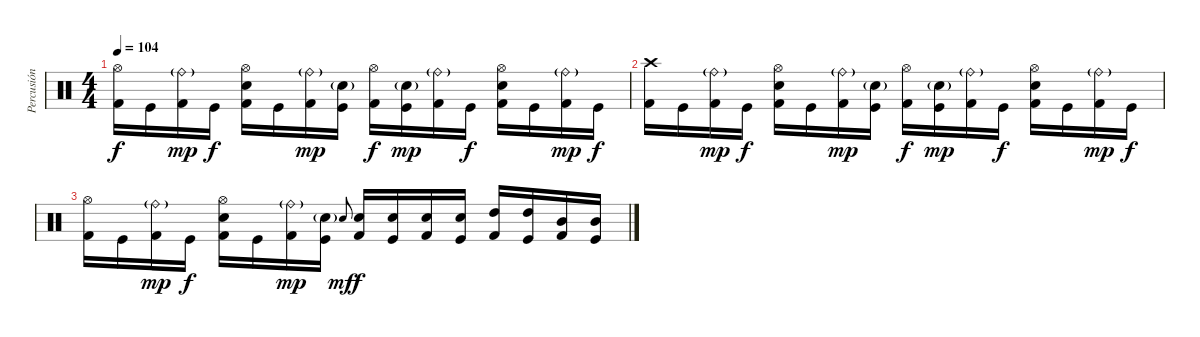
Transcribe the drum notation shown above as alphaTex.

\track ("Percusión" "Percusión") {instrument percussion}
\staff {score}
\articulation defaults
\ts (4 4)
\tempo 104
\clef neutral
\ks c
("Hi-Hat (open)" "Kick (hit) 2").16{dy f} "Kick (hit)".16 ("Ride (bell)"{g} "Kick (hit) 2").16{dy mp} "Kick (hit)".16{dy f} ("Hi-Hat (open)" "Snare (hit) 2" "Kick (hit) 2").16 "Kick (hit)".16 ("Ride (bell)"{g} "Kick (hit) 2").16{dy mp} ("Snare (hit) 2"{g} "Kick (hit)").16 ("Hi-Hat (open)" "Kick (hit) 2").16{dy f} ("Snare (hit) 2"{g} "Kick (hit)").16{dy mp} ("Ride (bell)"{g} "Kick (hit) 2").16 "Kick (hit)".16{dy f} ("Hi-Hat (open)" "Snare (hit) 2" "Kick (hit) 2").16 "Kick (hit)".16 ("Ride (bell)"{g} "Kick (hit) 2").16{dy mp} "Kick (hit)".16{dy f} |
("Crash high (hit)" "Kick (hit) 2").16 "Kick (hit)".16 ("Ride (bell)"{g} "Kick (hit) 2").16{dy mp} "Kick (hit)".16{dy f} ("Hi-Hat (open)" "Snare (hit) 2" "Kick (hit) 2").16 "Kick (hit)".16 ("Ride (bell)"{g} "Kick (hit) 2").16{dy mp} ("Snare (hit) 2"{g} "Kick (hit)").16 ("Hi-Hat (open)" "Kick (hit) 2").16{dy f} ("Snare (hit) 2"{g} "Kick (hit)").16{dy mp} ("Ride (bell)"{g} "Kick (hit) 2").16 "Kick (hit)".16{dy f} ("Hi-Hat (open)" "Snare (hit) 2" "Kick (hit) 2").16 "Kick (hit)".16 ("Ride (bell)"{g} "Kick (hit) 2").16{dy mp} "Kick (hit)".16{dy f} |
("Hi-Hat (open)" "Kick (hit) 2").16 "Kick (hit)".16 ("Ride (bell)"{g} "Kick (hit) 2").16{dy mp} "Kick (hit)".16{dy f} ("Hi-Hat (open)" "Snare (hit) 2" "Kick (hit) 2").16 "Kick (hit)".16 ("Ride (bell)"{g} "Kick (hit) 2").16{dy mp} ("Snare (hit) 2"{g} "Kick (hit)").16 "Snare (hit) 2".8{gr onbeat dy mf} ("Snare (hit) 2" "Kick (hit) 2").16{dy f} ("Snare (hit) 2" "Kick (hit)").16 ("Snare (hit) 2" "Kick (hit) 2").16 ("Snare (hit) 2" "Kick (hit)").16 ("High Tom (hit)" "Kick (hit) 2").16 ("High Tom (hit)" "Kick (hit)").16 ("Mid Tom (hit)" "Kick (hit) 2").16 ("Mid Tom (hit)" "Kick (hit)").16
